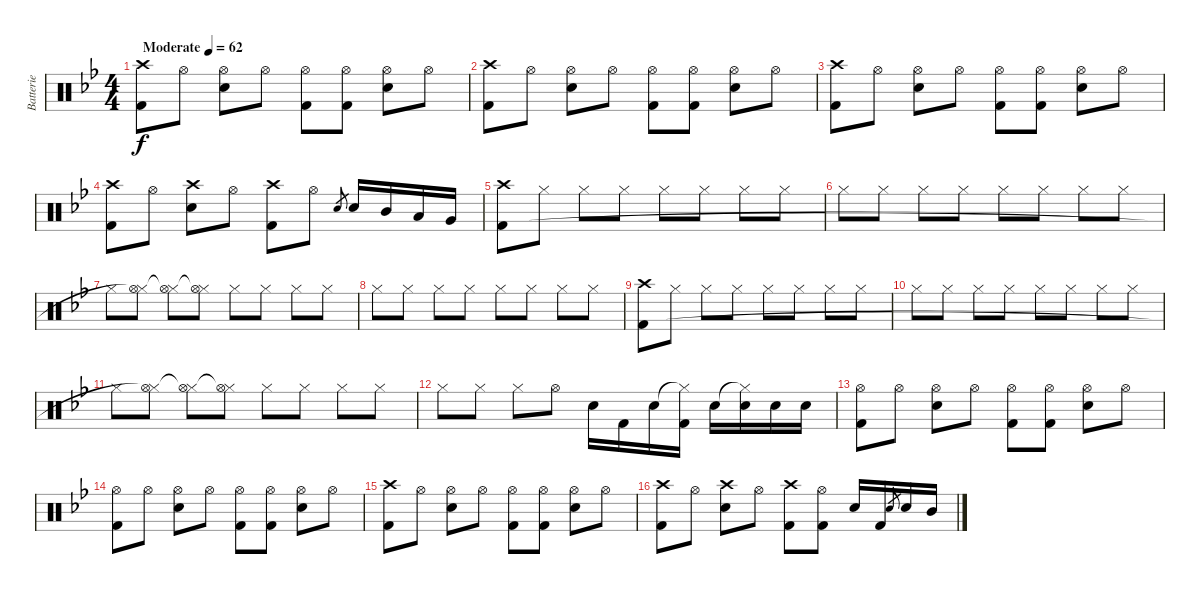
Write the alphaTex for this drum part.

\track ("Batterie" "Batterie") {instrument percussion}
\staff {score}
\articulation defaults
\ts (4 4)
\tempo (62 "Moderate")
\clef neutral
\ks bb
("Crash high (hit)" "Kick (hit) 2").8{dy f} "Hi-Hat (open)".8 ("Hi-Hat (open)" "Snare (hit) 2").8 "Hi-Hat (open)".8 ("Hi-Hat (open)" "Kick (hit) 2").8 ("Hi-Hat (open)" "Kick (hit) 2").8 ("Hi-Hat (open)" "Snare (hit) 2").8 "Hi-Hat (open)".8 |
("Crash high (hit)" "Kick (hit) 2").8 "Hi-Hat (open)".8 ("Hi-Hat (open)" "Snare (hit) 2").8 "Hi-Hat (open)".8 ("Hi-Hat (open)" "Kick (hit) 2").8 ("Hi-Hat (open)" "Kick (hit) 2").8 ("Hi-Hat (open)" "Snare (hit) 2").8 "Hi-Hat (open)".8 |
("Crash high (hit)" "Kick (hit) 2").8 "Hi-Hat (open)".8 ("Hi-Hat (open)" "Snare (hit) 2").8 "Hi-Hat (open)".8 ("Hi-Hat (open)" "Kick (hit) 2").8 ("Hi-Hat (open)" "Kick (hit) 2").8 ("Hi-Hat (open)" "Snare (hit) 2").8 "Hi-Hat (open)".8 |
("Crash high (hit)" "Kick (hit) 2").8 "Hi-Hat (open)".8 ("Crash high (hit)" "Snare (hit) 2").8 "Hi-Hat (open)".8 ("Crash high (hit)" "Kick (hit) 2").8 "Hi-Hat (open)".8 "Snare (hit) 2".8{gr} "Snare (hit) 2".16 "Mid Tom (hit)".16 "Low Tom (hit)".16 "Very Low Tom (hit)".16 |
("Crash high (hit)" "Kick (hit) 2").8 "Hi-Hat (closed)".8 "Hi-Hat (closed)".8 "Hi-Hat (closed)".8 "Hi-Hat (closed)".8 "Hi-Hat (closed)".8 "Hi-Hat (closed)".8 "Hi-Hat (closed)".8 |
"Hi-Hat (closed)".8 "Hi-Hat (closed)".8 "Hi-Hat (closed)".8 "Hi-Hat (closed)".8 "Hi-Hat (closed)".8 "Hi-Hat (closed)".8 "Hi-Hat (closed)".8 "Hi-Hat (closed)".8 |
"Hi-Hat (closed)".8 ("Hi-Hat (closed)" "Hi-Hat (open)"{t}).8 ("Hi-Hat (closed)" "Hi-Hat (open)"{t}).8 ("Hi-Hat (closed)" "Hi-Hat (open)"{t}).8 "Hi-Hat (closed)".8 "Hi-Hat (closed)".8 "Hi-Hat (closed)".8 "Hi-Hat (closed)".8 |
"Hi-Hat (closed)".8 "Hi-Hat (closed)".8 "Hi-Hat (closed)".8 "Hi-Hat (closed)".8 "Hi-Hat (closed)".8 "Hi-Hat (closed)".8 "Hi-Hat (closed)".8 "Hi-Hat (closed)".8 |
("Crash high (hit)" "Kick (hit) 2").8 "Hi-Hat (closed)".8 "Hi-Hat (closed)".8 "Hi-Hat (closed)".8 "Hi-Hat (closed)".8 "Hi-Hat (closed)".8 "Hi-Hat (closed)".8 "Hi-Hat (closed)".8 |
"Hi-Hat (closed)".8 "Hi-Hat (closed)".8 "Hi-Hat (closed)".8 "Hi-Hat (closed)".8 "Hi-Hat (closed)".8 "Hi-Hat (closed)".8 "Hi-Hat (closed)".8 "Hi-Hat (closed)".8 |
"Hi-Hat (closed)".8 ("Hi-Hat (closed)" "Hi-Hat (open)"{t}).8 ("Hi-Hat (closed)" "Hi-Hat (open)"{t}).8 ("Hi-Hat (closed)" "Hi-Hat (open)"{t}).8 "Hi-Hat (closed)".8 "Hi-Hat (closed)".8 "Hi-Hat (closed)".8 "Hi-Hat (closed)".8 |
"Hi-Hat (closed)".8 "Hi-Hat (closed)".8 "Hi-Hat (closed)".8 "Hi-Hat (open)".8 "Snare (hit) 2".16 "Kick (hit) 2".16 "Snare (hit) 2".16 ("Hi-Hat (closed)"{t} "Kick (hit) 2").16 "Snare (hit) 2".16 ("Hi-Hat (closed)"{t} "Snare (hit) 2").16 "Snare (hit) 2".16 "Snare (hit) 2".16 |
("Hi-Hat (open)" "Kick (hit) 2").8 "Hi-Hat (open)".8 ("Hi-Hat (open)" "Snare (hit) 2").8 "Hi-Hat (open)".8 ("Hi-Hat (open)" "Kick (hit) 2").8 ("Hi-Hat (open)" "Kick (hit) 2").8 ("Hi-Hat (open)" "Snare (hit) 2").8 "Hi-Hat (open)".8 |
("Hi-Hat (open)" "Kick (hit) 2").8 "Hi-Hat (open)".8 ("Hi-Hat (open)" "Snare (hit) 2").8 "Hi-Hat (open)".8 ("Hi-Hat (open)" "Kick (hit) 2").8 ("Hi-Hat (open)" "Kick (hit) 2").8 ("Hi-Hat (open)" "Snare (hit) 2").8 "Hi-Hat (open)".8 |
("Crash high (hit)" "Kick (hit) 2").8 "Hi-Hat (open)".8 ("Hi-Hat (open)" "Snare (hit) 2").8 "Hi-Hat (open)".8 ("Hi-Hat (open)" "Kick (hit) 2").8 ("Hi-Hat (open)" "Kick (hit) 2").8 ("Hi-Hat (open)" "Snare (hit) 2").8 "Hi-Hat (open)".8 |
("Crash high (hit)" "Kick (hit) 2").8 "Hi-Hat (open)".8 ("Crash high (hit)" "Snare (hit) 2").8 "Hi-Hat (open)".8 ("Crash high (hit)" "Kick (hit) 2").8 ("Hi-Hat (open)" "Kick (hit) 2").8 "Snare (hit) 2".16 "Kick (hit) 2".16 "Snare (hit) 2".8{gr} "Snare (hit) 2".16 "Mid Tom (hit)".16
